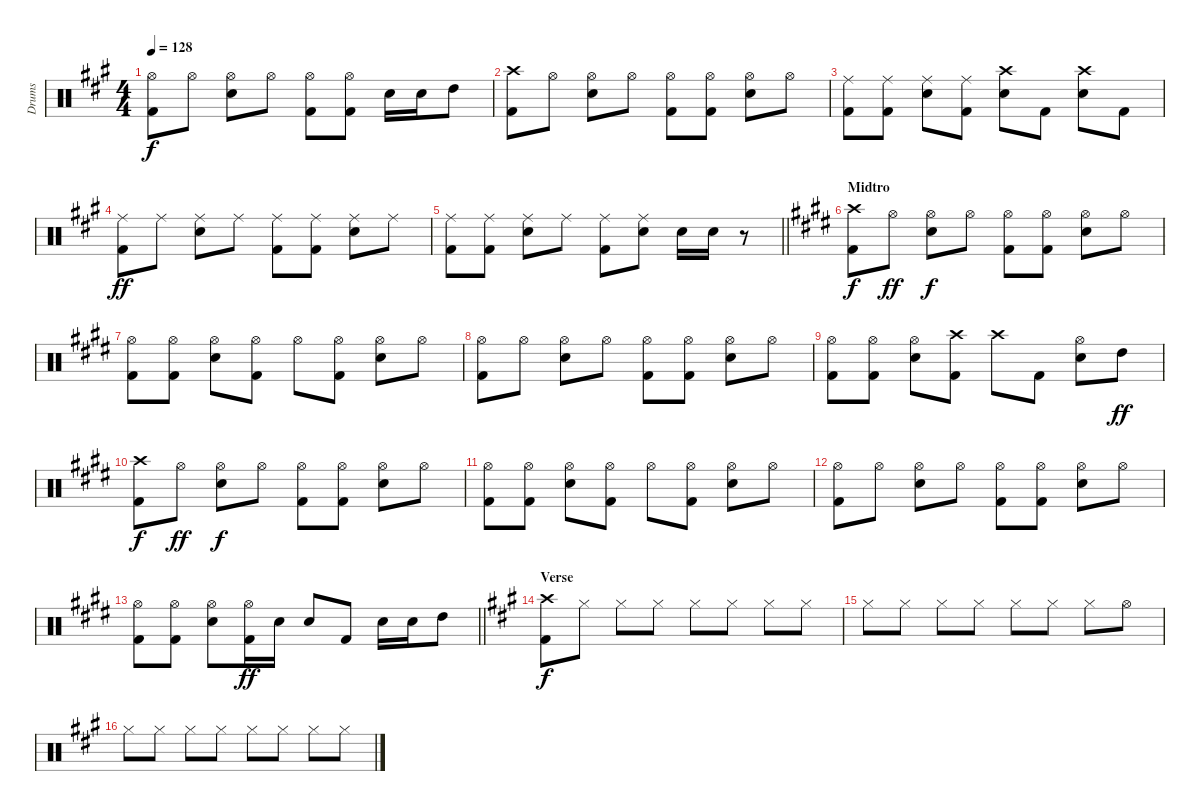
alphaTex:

\track ("Drums" "Drums") {instrument percussion}
\staff {score}
\articulation defaults
\ts (4 4)
\tempo 128
\clef neutral
\ks a
("Hi-Hat (open)" "Kick (hit) 2").8{dy f} "Hi-Hat (open)".8 ("Hi-Hat (open)" "Snare (hit) 2").8 "Hi-Hat (open)".8 ("Hi-Hat (open)" "Kick (hit) 2").8 ("Hi-Hat (open)" "Kick (hit) 2").8 "Snare (hit) 2".16 "Snare (hit) 2".16 "High Tom (hit)".8 |
("Crash high (hit)" "Kick (hit) 2").8 "Hi-Hat (open)".8 ("Hi-Hat (open)" "Snare (hit) 2").8 "Hi-Hat (open)".8 ("Hi-Hat (open)" "Kick (hit) 2").8 ("Hi-Hat (open)" "Kick (hit) 2").8 ("Hi-Hat (open)" "Snare (hit) 2").8 "Hi-Hat (open)".8 |
("Ride (middle)" "Kick (hit) 2").8 ("Ride (middle)" "Kick (hit) 2").8 ("Ride (middle)" "Snare (hit) 2").8 ("Ride (middle)" "Kick (hit) 2").8 ("Crash high (hit)" "Snare (hit) 2").8 "Kick (hit) 2".8 ("Crash high (hit)" "Snare (hit) 2").8 "Kick (hit) 2".8 |
("Ride (middle)" "Kick (hit) 2").8{dy ff} "Ride (middle)".8 ("Ride (middle)" "Snare (hit) 2").8 "Ride (middle)".8 ("Ride (middle)" "Kick (hit) 2").8 ("Ride (middle)" "Kick (hit) 2").8 ("Ride (middle)" "Snare (hit) 2").8 "Ride (middle)".8 |
\barLineRight lightlight
("Ride (middle)" "Kick (hit) 2").8 ("Ride (middle)" "Kick (hit) 2").8 ("Ride (middle)" "Snare (hit) 2").8 "Ride (middle)".8 ("Ride (middle)" "Kick (hit) 2").8 ("Ride (middle)" "Snare (hit) 2").8 "Snare (hit) 2".16 "Snare (hit) 2".16 r.8 |
\section ("" "Midtro")
\ks e
("Crash high (hit)" "Kick (hit) 2").8{dy f} "Hi-Hat (open)".8{dy ff} ("Hi-Hat (open)" "Snare (hit) 2").8{dy f} "Hi-Hat (open)".8 ("Hi-Hat (open)" "Kick (hit) 2").8 ("Hi-Hat (open)" "Kick (hit) 2").8 ("Hi-Hat (open)" "Snare (hit) 2").8 "Hi-Hat (open)".8 |
("Hi-Hat (open)" "Kick (hit) 2").8 ("Hi-Hat (open)" "Kick (hit) 2").8 ("Hi-Hat (open)" "Snare (hit) 2").8 ("Hi-Hat (open)" "Kick (hit) 2").8 "Hi-Hat (open)".8 ("Hi-Hat (open)" "Kick (hit) 2").8 ("Hi-Hat (open)" "Snare (hit) 2").8 "Hi-Hat (open)".8 |
("Hi-Hat (open)" "Kick (hit) 2").8 "Hi-Hat (open)".8 ("Hi-Hat (open)" "Snare (hit) 2").8 "Hi-Hat (open)".8 ("Hi-Hat (open)" "Kick (hit) 2").8 ("Hi-Hat (open)" "Kick (hit) 2").8 ("Hi-Hat (open)" "Snare (hit) 2").8 "Hi-Hat (open)".8 |
("Hi-Hat (open)" "Kick (hit) 2").8 ("Hi-Hat (open)" "Kick (hit) 2").8 ("Hi-Hat (open)" "Snare (hit) 2").8 ("Crash high (hit)" "Kick (hit) 2").8 "Crash high (hit)".8 "Kick (hit) 2".8 ("Hi-Hat (open)" "Snare (hit) 2").8 "High Tom (hit)".8{dy ff} |
("Crash high (hit)" "Kick (hit) 2").8{dy f} "Hi-Hat (open)".8{dy ff} ("Hi-Hat (open)" "Snare (hit) 2").8{dy f} "Hi-Hat (open)".8 ("Hi-Hat (open)" "Kick (hit) 2").8 ("Hi-Hat (open)" "Kick (hit) 2").8 ("Hi-Hat (open)" "Snare (hit) 2").8 "Hi-Hat (open)".8 |
("Hi-Hat (open)" "Kick (hit) 2").8 ("Hi-Hat (open)" "Kick (hit) 2").8 ("Hi-Hat (open)" "Snare (hit) 2").8 ("Hi-Hat (open)" "Kick (hit) 2").8 "Hi-Hat (open)".8 ("Hi-Hat (open)" "Kick (hit) 2").8 ("Hi-Hat (open)" "Snare (hit) 2").8 "Hi-Hat (open)".8 |
("Hi-Hat (open)" "Kick (hit) 2").8 "Hi-Hat (open)".8 ("Hi-Hat (open)" "Snare (hit) 2").8 "Hi-Hat (open)".8 ("Hi-Hat (open)" "Kick (hit) 2").8 ("Hi-Hat (open)" "Kick (hit) 2").8 ("Hi-Hat (open)" "Snare (hit) 2").8 "Hi-Hat (open)".8 |
\barLineRight lightlight
("Hi-Hat (open)" "Kick (hit) 2").8 ("Hi-Hat (open)" "Kick (hit) 2").8 ("Hi-Hat (open)" "Snare (hit) 2").8 ("Hi-Hat (open)" "Kick (hit) 2").16{dy ff} "Snare (hit) 2".16 "Snare (hit) 2".8 "Kick (hit) 2".8 "Snare (hit) 2".16 "Snare (hit) 2".16 "High Tom (hit)".8 |
\section ("" "Verse")
\ks a
("Crash high (hit)" "Kick (hit) 2").8{dy f} "Hi-Hat (closed)".8 "Hi-Hat (closed)".8 "Hi-Hat (closed)".8 "Hi-Hat (closed)".8 "Hi-Hat (closed)".8 "Hi-Hat (closed)".8 "Hi-Hat (closed)".8 |
"Hi-Hat (closed)".8 "Hi-Hat (closed)".8 "Hi-Hat (closed)".8 "Hi-Hat (closed)".8 "Hi-Hat (closed)".8 "Hi-Hat (closed)".8 "Hi-Hat (closed)".8 "Hi-Hat (open)".8 |
"Hi-Hat (closed)".8 "Hi-Hat (closed)".8 "Hi-Hat (closed)".8 "Hi-Hat (closed)".8 "Hi-Hat (closed)".8 "Hi-Hat (closed)".8 "Hi-Hat (closed)".8 "Hi-Hat (closed)".8
